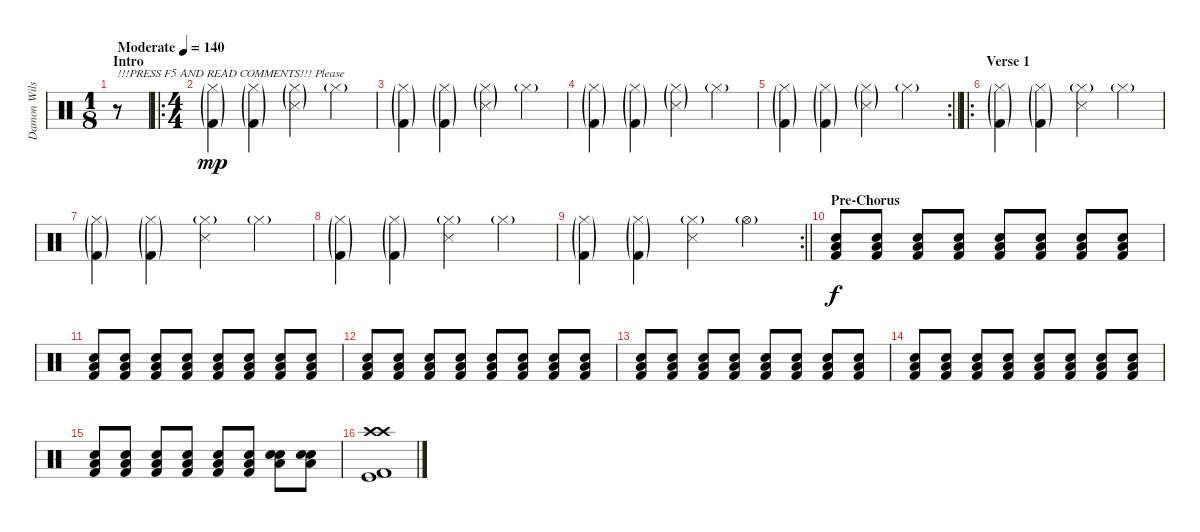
\track ("Damon Wilson" "Damon Wils") {instrument percussion}
\staff {score}
\articulation defaults
\ts (1 8)
\section ("" "Intro")
\tempo (140 "Moderate")
\clef neutral
\ks c
r.8{txt "!!!PRESS F5 AND READ COMMENTS!!! Please" dy mp} |
\ro
\ts (4 4)
("Hi-Hat (closed)"{g} "Kick (hit) 2"{g}).4 ("Hi-Hat (closed)"{g} "Kick (hit) 2"{g}).4 ("Hi-Hat (closed)"{g} "Snare (side stick) 3"{g}).4 "Hi-Hat (closed)"{g}.4 |
("Hi-Hat (closed)"{g} "Kick (hit) 2"{g}).4 ("Hi-Hat (closed)"{g} "Kick (hit) 2"{g}).4 ("Hi-Hat (closed)"{g} "Snare (side stick) 3"{g}).4 "Hi-Hat (closed)"{g}.4 |
("Hi-Hat (closed)"{g} "Kick (hit) 2"{g}).4 ("Hi-Hat (closed)"{g} "Kick (hit) 2"{g}).4 ("Hi-Hat (closed)"{g} "Snare (side stick) 3"{g}).4 "Hi-Hat (closed)"{g}.4 |
\rc 2
\barLineRight lightlight
("Hi-Hat (closed)"{g} "Kick (hit) 2"{g}).4 ("Hi-Hat (closed)"{g} "Kick (hit) 2"{g}).4 ("Hi-Hat (closed)"{g} "Snare (side stick) 3"{g}).4 "Hi-Hat (closed)"{g}.4 |
\ro
\section ("" "Verse 1")
("Hi-Hat (closed)"{g} "Kick (hit) 2"{g}).4 ("Hi-Hat (closed)"{g} "Kick (hit) 2"{g}).4 ("Hi-Hat (closed)"{g} "Snare (side stick) 3").4 "Hi-Hat (closed)"{g}.4 |
("Hi-Hat (closed)"{g} "Kick (hit) 2"{g}).4 ("Hi-Hat (closed)"{g} "Kick (hit) 2"{g}).4 ("Hi-Hat (closed)"{g} "Snare (side stick) 3").4 "Hi-Hat (closed)"{g}.4 |
("Hi-Hat (closed)"{g} "Kick (hit) 2"{g}).4 ("Hi-Hat (closed)"{g} "Kick (hit) 2"{g}).4 ("Hi-Hat (closed)"{g} "Snare (side stick) 3").4 "Hi-Hat (closed)"{g}.4 |
\rc 2
\barLineRight lightlight
("Hi-Hat (closed)"{g} "Kick (hit) 2"{g}).4 ("Hi-Hat (closed)"{g} "Kick (hit) 2"{g}).4 ("Hi-Hat (closed)"{g} "Snare (side stick) 3").4 "Hi-Hat (open)"{g}.4 |
\section ("" "Pre-Chorus")
("Snare (hit) 2" "Low Floor Tom (hit)" "Kick (hit) 2").8{dy f volume 0} ("Snare (hit) 2" "Low Floor Tom (hit)" "Kick (hit) 2").8{volume 16} ("Snare (hit) 2" "Low Floor Tom (hit)" "Kick (hit) 2").8 ("Snare (hit) 2" "Low Floor Tom (hit)" "Kick (hit) 2").8 ("Snare (hit) 2" "Low Floor Tom (hit)" "Kick (hit) 2").8 ("Snare (hit) 2" "Low Floor Tom (hit)" "Kick (hit) 2").8 ("Snare (hit) 2" "Low Floor Tom (hit)" "Kick (hit) 2").8 ("Snare (hit) 2" "Low Floor Tom (hit)" "Kick (hit) 2").8 |
("Snare (hit) 2" "Low Floor Tom (hit)" "Kick (hit) 2").8{volume 8} ("Snare (hit) 2" "Low Floor Tom (hit)" "Kick (hit) 2").8 ("Snare (hit) 2" "Low Floor Tom (hit)" "Kick (hit) 2").8 ("Snare (hit) 2" "Low Floor Tom (hit)" "Kick (hit) 2").8 ("Snare (hit) 2" "Low Floor Tom (hit)" "Kick (hit) 2").8 ("Snare (hit) 2" "Low Floor Tom (hit)" "Kick (hit) 2").8 ("Snare (hit) 2" "Low Floor Tom (hit)" "Kick (hit) 2").8 ("Snare (hit) 2" "Low Floor Tom (hit)" "Kick (hit) 2").8 |
("Snare (hit) 2" "Low Floor Tom (hit)" "Kick (hit) 2").8{volume 8} ("Snare (hit) 2" "Low Floor Tom (hit)" "Kick (hit) 2").8 ("Snare (hit) 2" "Low Floor Tom (hit)" "Kick (hit) 2").8 ("Snare (hit) 2" "Low Floor Tom (hit)" "Kick (hit) 2").8 ("Snare (hit) 2" "Low Floor Tom (hit)" "Kick (hit) 2").8 ("Snare (hit) 2" "Low Floor Tom (hit)" "Kick (hit) 2").8 ("Snare (hit) 2" "Low Floor Tom (hit)" "Kick (hit) 2").8 ("Snare (hit) 2" "Low Floor Tom (hit)" "Kick (hit) 2").8 |
("Snare (hit) 2" "Low Floor Tom (hit)" "Kick (hit) 2").8{volume 8} ("Snare (hit) 2" "Low Floor Tom (hit)" "Kick (hit) 2").8 ("Snare (hit) 2" "Low Floor Tom (hit)" "Kick (hit) 2").8 ("Snare (hit) 2" "Low Floor Tom (hit)" "Kick (hit) 2").8 ("Snare (hit) 2" "Low Floor Tom (hit)" "Kick (hit) 2").8 ("Snare (hit) 2" "Low Floor Tom (hit)" "Kick (hit) 2").8 ("Snare (hit) 2" "Low Floor Tom (hit)" "Kick (hit) 2").8 ("Snare (hit) 2" "Low Floor Tom (hit)" "Kick (hit) 2").8 |
("Snare (hit) 2" "Low Floor Tom (hit)" "Kick (hit) 2").8{volume 12} ("Snare (hit) 2" "Low Floor Tom (hit)" "Kick (hit) 2").8{volume 16} ("Snare (hit) 2" "Low Floor Tom (hit)" "Kick (hit) 2").8 ("Snare (hit) 2" "Low Floor Tom (hit)" "Kick (hit) 2").8 ("Snare (hit) 2" "Low Floor Tom (hit)" "Kick (hit) 2").8 ("Snare (hit) 2" "Low Floor Tom (hit)" "Kick (hit) 2").8 ("Snare (hit) 2" "Low Floor Tom (hit)" "Kick (hit) 2").8 ("Snare (hit) 2" "Low Floor Tom (hit)" "Kick (hit) 2").8 |
("Snare (hit) 2" "Low Floor Tom (hit)" "Kick (hit) 2").8{volume 8} ("Snare (hit) 2" "Low Floor Tom (hit)" "Kick (hit) 2").8 ("Snare (hit) 2" "Low Floor Tom (hit)" "Kick (hit) 2").8 ("Snare (hit) 2" "Low Floor Tom (hit)" "Kick (hit) 2").8 ("Snare (hit) 2" "Low Floor Tom (hit)" "Kick (hit) 2").8 ("Snare (hit) 2" "Low Floor Tom (hit)" "Kick (hit) 2").8 ("Snare (hit) 2" "Low Floor Tom (hit)" "Snare (hit)").8 ("Snare (hit) 2" "Low Floor Tom (hit)" "Snare (hit)").8 |
("Crash high (hit)" "Crash high (hit)" "Kick (hit)" "Kick (hit) 2").1{volume 16}
